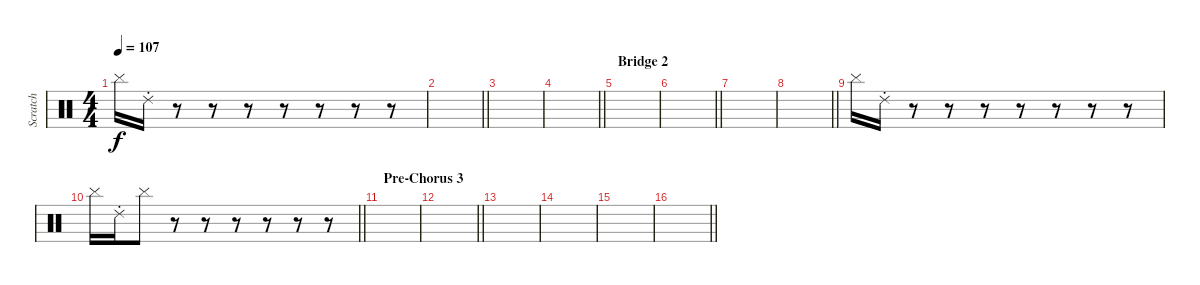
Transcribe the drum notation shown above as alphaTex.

\track ("Scratch" "Scratch") {instrument percussion}
\staff {score}
\articulation defaults
\ts (4 4)
\tempo 107
\clef neutral
\ks c "Cymbal (hit)".16{dy f} "Ride (choke) 2".16
r.8 r.8 r.8 r.8 r.8 r.8 r.8 |
\barLineRight lightlight
|
|
\barLineRight lightlight
|
\section ("" "Bridge 2")
|
\barLineRight lightlight
|
|
\barLineRight lightlight
|
"Cymbal (hit)".16 "Ride (choke) 2".16 r.8 r.8 r.8 r.8 r.8 r.8 r.8 |
\barLineRight lightlight "Cymbal (hit)".16 "Ride (choke) 2".16 "Cymbal (hit)".8
r.8 r.8 r.8 r.8 r.8 r.8 |
\section ("" "Pre-Chorus 3")
|
\barLineRight lightlight
|
|
|
|
\barLineRight lightlight
